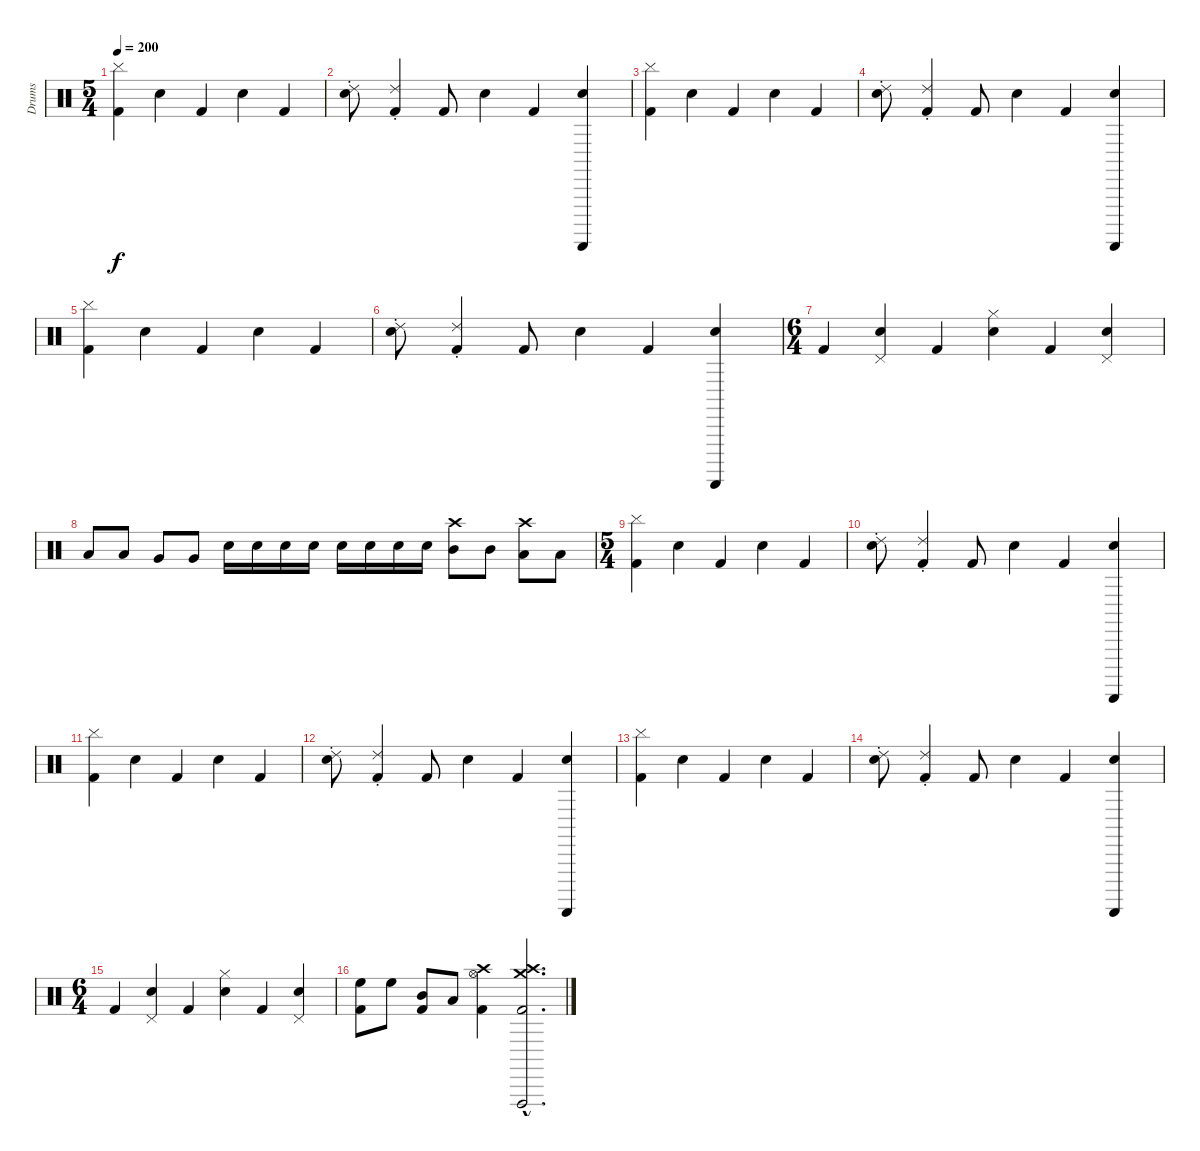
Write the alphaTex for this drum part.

\track ("Drums" "Drums") {instrument percussion}
\staff {score}
\articulation defaults
\ts (5 4)
\tempo 200
\clef neutral
\ks c
("Kick (hit) 2" "Cymbal (hit)").4{dy f} "Hand Clap (hit)".4 "Kick (hit) 2".4 "Hand Clap (hit)".4 "Kick (hit) 2".4 |
("Hand Clap (hit)" "Ride (choke) 2").8 ("Kick (hit) 2" "Ride (choke) 2").4 "Kick (hit) 2".8 "Hand Clap (hit)".4 "Kick (hit) 2".4 ("Hand Clap (hit)" "Guiro (scrap-return)").4 |
("Kick (hit) 2" "Cymbal (hit)").4 "Hand Clap (hit)".4 "Kick (hit) 2".4 "Hand Clap (hit)".4 "Kick (hit) 2".4 |
("Hand Clap (hit)" "Ride (choke) 2").8 ("Kick (hit) 2" "Ride (choke) 2").4 "Kick (hit) 2".8 "Hand Clap (hit)".4 "Kick (hit) 2".4 ("Hand Clap (hit)" "Guiro (scrap-return)").4 |
("Kick (hit) 2" "Cymbal (hit)").4 "Hand Clap (hit)".4 "Kick (hit) 2".4 "Hand Clap (hit)".4 "Kick (hit) 2".4 |
("Hand Clap (hit)" "Ride (choke) 2").8 ("Kick (hit) 2" "Ride (choke) 2").4 "Kick (hit) 2".8 "Hand Clap (hit)".4 "Kick (hit) 2".4 ("Hand Clap (hit)" "Guiro (scrap-return)").4 |
\ts (6 4)
"Kick (hit) 2".4 ("Hand Clap (hit)" "Pedal Hi-Hat (hit)").4 "Kick (hit) 2".4 ("Hand Clap (hit)" "Hi-Hat (closed)").4 "Kick (hit) 2".4 ("Hand Clap (hit)" "Pedal Hi-Hat (hit)").4 |
"Low Tom (hit)".8 "Low Tom (hit)".8 "Very Low Tom (hit)".8 "Very Low Tom (hit)".8 "Snare (hit) 2".16 "Snare (hit) 2".16 "Snare (hit) 2".16 "Snare (hit) 2".16 "Snare (hit) 2".16 "Snare (hit) 2".16 "Snare (hit) 2".16 "Snare (hit) 2".16 ("Mid Tom (hit)" "Crash high (hit)").8 "Mid Tom (hit)".8 ("Low Tom (hit)" "Crash high (hit)").8 "Low Tom (hit)".8 |
\ts (5 4)
("Kick (hit) 2" "Cymbal (hit)").4 "Hand Clap (hit)".4 "Kick (hit) 2".4 "Hand Clap (hit)".4 "Kick (hit) 2".4 |
("Hand Clap (hit)" "Ride (choke) 2").8 ("Kick (hit) 2" "Ride (choke) 2").4 "Kick (hit) 2".8 "Hand Clap (hit)".4 "Kick (hit) 2".4 ("Hand Clap (hit)" "Guiro (scrap-return)").4 |
("Kick (hit) 2" "Cymbal (hit)").4 "Hand Clap (hit)".4 "Kick (hit) 2".4 "Hand Clap (hit)".4 "Kick (hit) 2".4 |
("Hand Clap (hit)" "Ride (choke) 2").8 ("Kick (hit) 2" "Ride (choke) 2").4 "Kick (hit) 2".8 "Hand Clap (hit)".4 "Kick (hit) 2".4 ("Hand Clap (hit)" "Guiro (scrap-return)").4 |
("Kick (hit) 2" "Cymbal (hit)").4 "Hand Clap (hit)".4 "Kick (hit) 2".4 "Hand Clap (hit)".4 "Kick (hit) 2".4 |
("Hand Clap (hit)" "Ride (choke) 2").8 ("Kick (hit) 2" "Ride (choke) 2").4 "Kick (hit) 2".8 "Hand Clap (hit)".4 "Kick (hit) 2".4 ("Hand Clap (hit)" "Guiro (scrap-return)").4 |
\ts (6 4)
"Kick (hit) 2".4 ("Hand Clap (hit)" "Pedal Hi-Hat (hit)").4 "Kick (hit) 2".4 ("Hand Clap (hit)" "Hi-Hat (closed)").4 "Kick (hit) 2".4 ("Hand Clap (hit)" "Pedal Hi-Hat (hit)").4 |
("High Floor Tom (hit)" "Kick (hit) 2").8 "High Floor Tom (hit)".8 ("Mid Tom (hit)" "Kick (hit) 2").8 "Low Tom (hit)".8 ("Crash high (hit)" "Kick (hit) 2" "Hi-Hat (open)").4 ("Crash high (hit)"{hac} "Crash medium (hit)"{hac} "Kick (hit) 2"{hac} "Vibraslap (hit)"{hac}).2{d}
